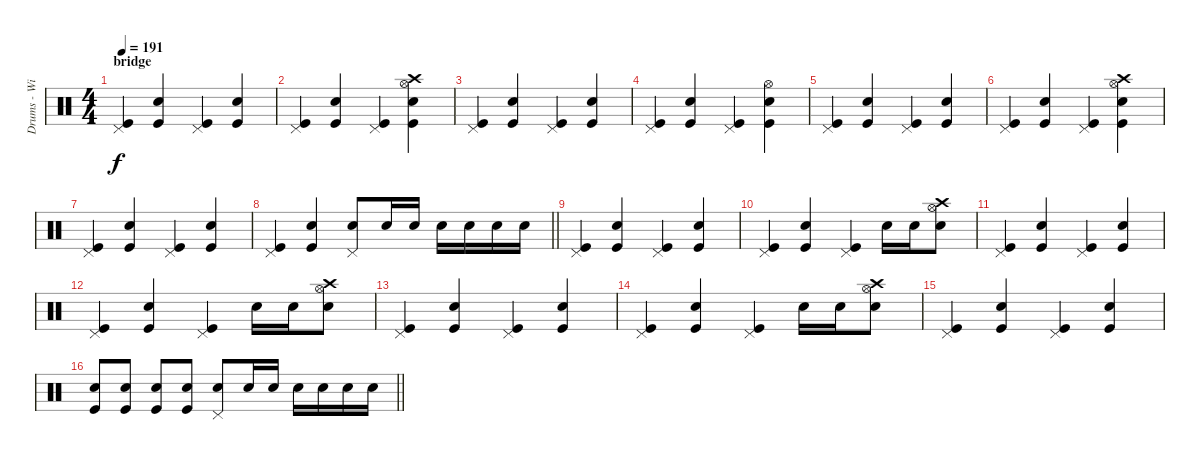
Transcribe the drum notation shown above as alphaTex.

\track ("Drums - Willie Buchan" "Drums - Wi") {instrument percussion}
\staff {score}
\articulation defaults
\ts (4 4)
\section ("" "bridge")
\tempo 191
\clef neutral
\ks c
("Kick (hit)" "Pedal Hi-Hat (hit)").4{dy f} ("Kick (hit)" "Snare (hit) 2").4 ("Kick (hit)" "Pedal Hi-Hat (hit)").4 ("Kick (hit)" "Snare (hit) 2").4 |
("Kick (hit)" "Pedal Hi-Hat (hit)").4 ("Kick (hit)" "Snare (hit) 2").4 ("Kick (hit)" "Pedal Hi-Hat (hit)").4 ("Kick (hit)" "Snare (hit) 2" "Hi-Hat (open)" "Crash high (hit)").4 |
("Kick (hit)" "Pedal Hi-Hat (hit)").4 ("Kick (hit)" "Snare (hit) 2").4 ("Kick (hit)" "Pedal Hi-Hat (hit)").4 ("Kick (hit)" "Snare (hit) 2").4 |
("Kick (hit)" "Pedal Hi-Hat (hit)").4 ("Kick (hit)" "Snare (hit) 2").4 ("Kick (hit)" "Pedal Hi-Hat (hit)").4 ("Kick (hit)" "Snare (hit) 2" "Hi-Hat (open)").4 |
("Kick (hit)" "Pedal Hi-Hat (hit)").4 ("Kick (hit)" "Snare (hit) 2").4 ("Kick (hit)" "Pedal Hi-Hat (hit)").4 ("Kick (hit)" "Snare (hit) 2").4 |
("Kick (hit)" "Pedal Hi-Hat (hit)").4 ("Kick (hit)" "Snare (hit) 2").4 ("Kick (hit)" "Pedal Hi-Hat (hit)").4 ("Kick (hit)" "Snare (hit) 2" "Hi-Hat (open)" "Crash high (hit)").4 |
("Kick (hit)" "Pedal Hi-Hat (hit)").4 ("Kick (hit)" "Snare (hit) 2").4 ("Kick (hit)" "Pedal Hi-Hat (hit)").4 ("Kick (hit)" "Snare (hit) 2").4 |
\barLineRight lightlight
("Kick (hit)" "Pedal Hi-Hat (hit)").4 ("Kick (hit)" "Snare (hit) 2").4 ("Snare (hit) 2" "Pedal Hi-Hat (hit)").8 "Snare (hit) 2".16 "Snare (hit) 2".16 "Snare (hit) 2".16 "Snare (hit) 2".16 "Snare (hit) 2".16 "Snare (hit) 2".16 |
("Kick (hit)" "Pedal Hi-Hat (hit)").4 ("Kick (hit)" "Snare (hit) 2").4 ("Kick (hit)" "Pedal Hi-Hat (hit)").4 ("Kick (hit)" "Snare (hit) 2").4 |
("Kick (hit)" "Pedal Hi-Hat (hit)").4 ("Kick (hit)" "Snare (hit) 2").4 ("Kick (hit)" "Pedal Hi-Hat (hit)").4 "Snare (hit) 2".16 "Snare (hit) 2".16 ("Snare (hit) 2" "Hi-Hat (open)" "Crash high (hit)").8 |
("Kick (hit)" "Pedal Hi-Hat (hit)").4 ("Kick (hit)" "Snare (hit) 2").4 ("Kick (hit)" "Pedal Hi-Hat (hit)").4 ("Kick (hit)" "Snare (hit) 2").4 |
("Kick (hit)" "Pedal Hi-Hat (hit)").4 ("Kick (hit)" "Snare (hit) 2").4 ("Kick (hit)" "Pedal Hi-Hat (hit)").4 "Snare (hit) 2".16 "Snare (hit) 2".16 ("Snare (hit) 2" "Hi-Hat (open)" "Crash high (hit)").8 |
("Kick (hit)" "Pedal Hi-Hat (hit)").4 ("Kick (hit)" "Snare (hit) 2").4 ("Kick (hit)" "Pedal Hi-Hat (hit)").4 ("Kick (hit)" "Snare (hit) 2").4 |
("Kick (hit)" "Pedal Hi-Hat (hit)").4 ("Kick (hit)" "Snare (hit) 2").4 ("Kick (hit)" "Pedal Hi-Hat (hit)").4 "Snare (hit) 2".16 "Snare (hit) 2".16 ("Snare (hit) 2" "Hi-Hat (open)" "Crash high (hit)").8 |
("Kick (hit)" "Pedal Hi-Hat (hit)").4 ("Kick (hit)" "Snare (hit) 2").4 ("Kick (hit)" "Pedal Hi-Hat (hit)").4 ("Kick (hit)" "Snare (hit) 2").4 |
\barLineRight lightlight
("Kick (hit)" "Snare (hit) 2").8 ("Kick (hit)" "Snare (hit) 2").8 ("Kick (hit)" "Snare (hit) 2").8 ("Kick (hit)" "Snare (hit) 2").8 ("Snare (hit) 2" "Pedal Hi-Hat (hit)").8 "Snare (hit) 2".16 "Snare (hit) 2".16 "Snare (hit) 2".16 "Snare (hit) 2".16 "Snare (hit) 2".16 "Snare (hit) 2".16
